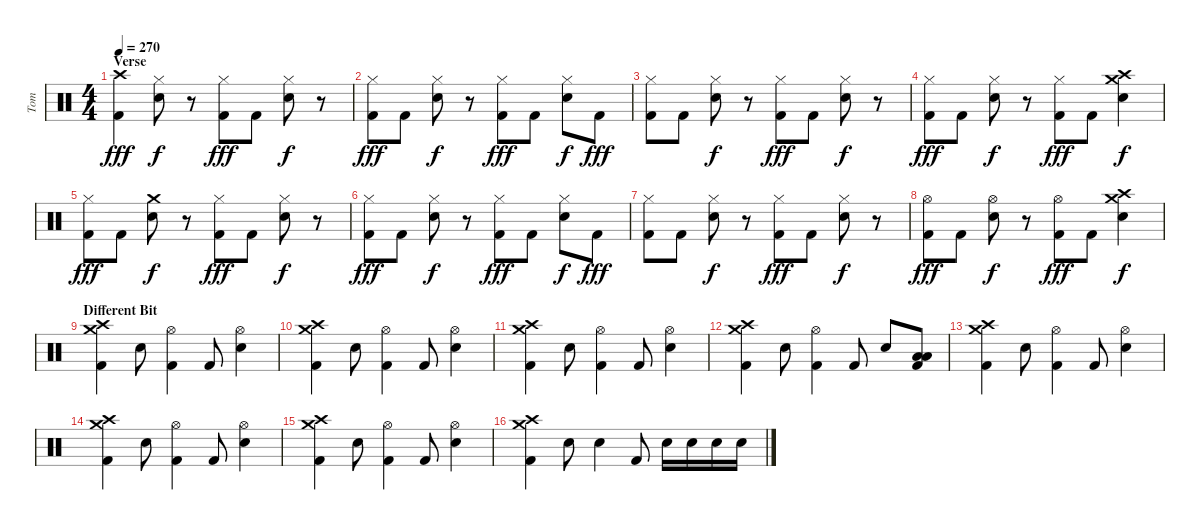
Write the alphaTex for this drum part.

\track ("Tom" "Tom") {instrument percussion}
\staff {score}
\articulation defaults
\ts (4 4)
\section ("" "Verse")
\tempo 270
\clef neutral
\ks c
("Crash high (hit)" "Kick (hit) 2").4{dy fff} ("Electric Snare (hit)" "Hi-Hat (closed)").8{dy f} r.8 ("Kick (hit) 2" "Hi-Hat (closed)").8{dy fff} "Kick (hit) 2".8 ("Electric Snare (hit)" "Hi-Hat (closed)").8{dy f} r.8 |
("Kick (hit) 2" "Hi-Hat (closed)").8{dy fff} "Kick (hit) 2".8 ("Electric Snare (hit)" "Hi-Hat (closed)").8{dy f} r.8 ("Kick (hit) 2" "Hi-Hat (closed)").8{dy fff} "Kick (hit) 2".8 ("Electric Snare (hit)" "Hi-Hat (closed)").8{dy f} "Kick (hit) 2".8{dy fff} |
("Kick (hit) 2" "Hi-Hat (closed)").8 "Kick (hit) 2".8 ("Electric Snare (hit)" "Hi-Hat (closed)").8{dy f} r.8 ("Kick (hit) 2" "Hi-Hat (closed)").8{dy fff} "Kick (hit) 2".8 ("Electric Snare (hit)" "Hi-Hat (closed)").8{dy f} r.8 |
("Kick (hit) 2" "Hi-Hat (closed)").8{dy fff} "Kick (hit) 2".8 ("Electric Snare (hit)" "Hi-Hat (closed)").8{dy f} r.8 ("Kick (hit) 2" "Hi-Hat (closed)").8{dy fff} "Kick (hit) 2".8 ("Electric Snare (hit)" "Crash medium (hit)" "Crash high (hit)").4{dy f} |
("Kick (hit) 2" "Hi-Hat (closed)").8{dy fff} "Kick (hit) 2".8 ("Crash medium (hit)" "Electric Snare (hit)").8{dy f} r.8 ("Kick (hit) 2" "Hi-Hat (closed)").8{dy fff} "Kick (hit) 2".8 ("Electric Snare (hit)" "Hi-Hat (closed)").8{dy f} r.8 |
("Kick (hit) 2" "Hi-Hat (closed)").8{dy fff} "Kick (hit) 2".8 ("Electric Snare (hit)" "Hi-Hat (closed)").8{dy f} r.8 ("Kick (hit) 2" "Hi-Hat (closed)").8{dy fff} "Kick (hit) 2".8 ("Electric Snare (hit)" "Hi-Hat (closed)").8{dy f} "Kick (hit) 2".8{dy fff} |
("Kick (hit) 2" "Hi-Hat (closed)").8 "Kick (hit) 2".8 ("Electric Snare (hit)" "Hi-Hat (closed)").8{dy f} r.8 ("Kick (hit) 2" "Hi-Hat (closed)").8{dy fff} "Kick (hit) 2".8 ("Electric Snare (hit)" "Hi-Hat (closed)").8{dy f} r.8 |
("Kick (hit) 2" "Hi-Hat (open)").8{dy fff} "Kick (hit) 2".8 ("Electric Snare (hit)" "Hi-Hat (open)").8{dy f} r.8 ("Kick (hit) 2" "Hi-Hat (open)").8{dy fff} "Kick (hit) 2".8 ("Electric Snare (hit)" "Crash medium (hit)" "Crash high (hit)").4{dy f} |
\section ("" "Different Bit")
("Kick (hit) 2" "Crash medium (hit)" "Crash high (hit)").4 "Electric Snare (hit)".8 ("Kick (hit) 2" "Hi-Hat (open)").4 "Kick (hit) 2".8 ("Electric Snare (hit)" "Hi-Hat (open)").4 |
("Kick (hit) 2" "Crash medium (hit)" "Crash high (hit)").4 "Electric Snare (hit)".8 ("Kick (hit) 2" "Hi-Hat (open)").4 "Kick (hit) 2".8 ("Electric Snare (hit)" "Hi-Hat (open)").4 |
("Kick (hit) 2" "Crash medium (hit)" "Crash high (hit)").4 "Electric Snare (hit)".8 ("Kick (hit) 2" "Hi-Hat (open)").4 "Kick (hit) 2".8 ("Electric Snare (hit)" "Hi-Hat (open)").4 |
("Kick (hit) 2" "Crash medium (hit)" "Crash high (hit)").4 "Electric Snare (hit)".8 ("Kick (hit) 2" "Hi-Hat (open)").4 "Kick (hit) 2".8 "Electric Snare (hit)".8 ("Kick (hit) 2" "Low Tom (hit)" "Low Tom (hit)").8 |
("Kick (hit) 2" "Crash medium (hit)" "Crash high (hit)").4 "Electric Snare (hit)".8 ("Kick (hit) 2" "Hi-Hat (open)").4 "Kick (hit) 2".8 ("Electric Snare (hit)" "Hi-Hat (open)").4 |
("Kick (hit) 2" "Crash medium (hit)" "Crash high (hit)").4 "Electric Snare (hit)".8 ("Kick (hit) 2" "Hi-Hat (open)").4 "Kick (hit) 2".8 ("Electric Snare (hit)" "Hi-Hat (open)").4 |
("Kick (hit) 2" "Crash medium (hit)" "Crash high (hit)").4 "Electric Snare (hit)".8 ("Kick (hit) 2" "Hi-Hat (open)").4 "Kick (hit) 2".8 ("Electric Snare (hit)" "Hi-Hat (open)").4 |
("Kick (hit) 2" "Crash medium (hit)" "Crash high (hit)").4 "Electric Snare (hit)".8 "Electric Snare (hit)".4 "Kick (hit) 2".8 "Electric Snare (hit)".16 "Electric Snare (hit)".16 "Electric Snare (hit)".16 "Electric Snare (hit)".16
